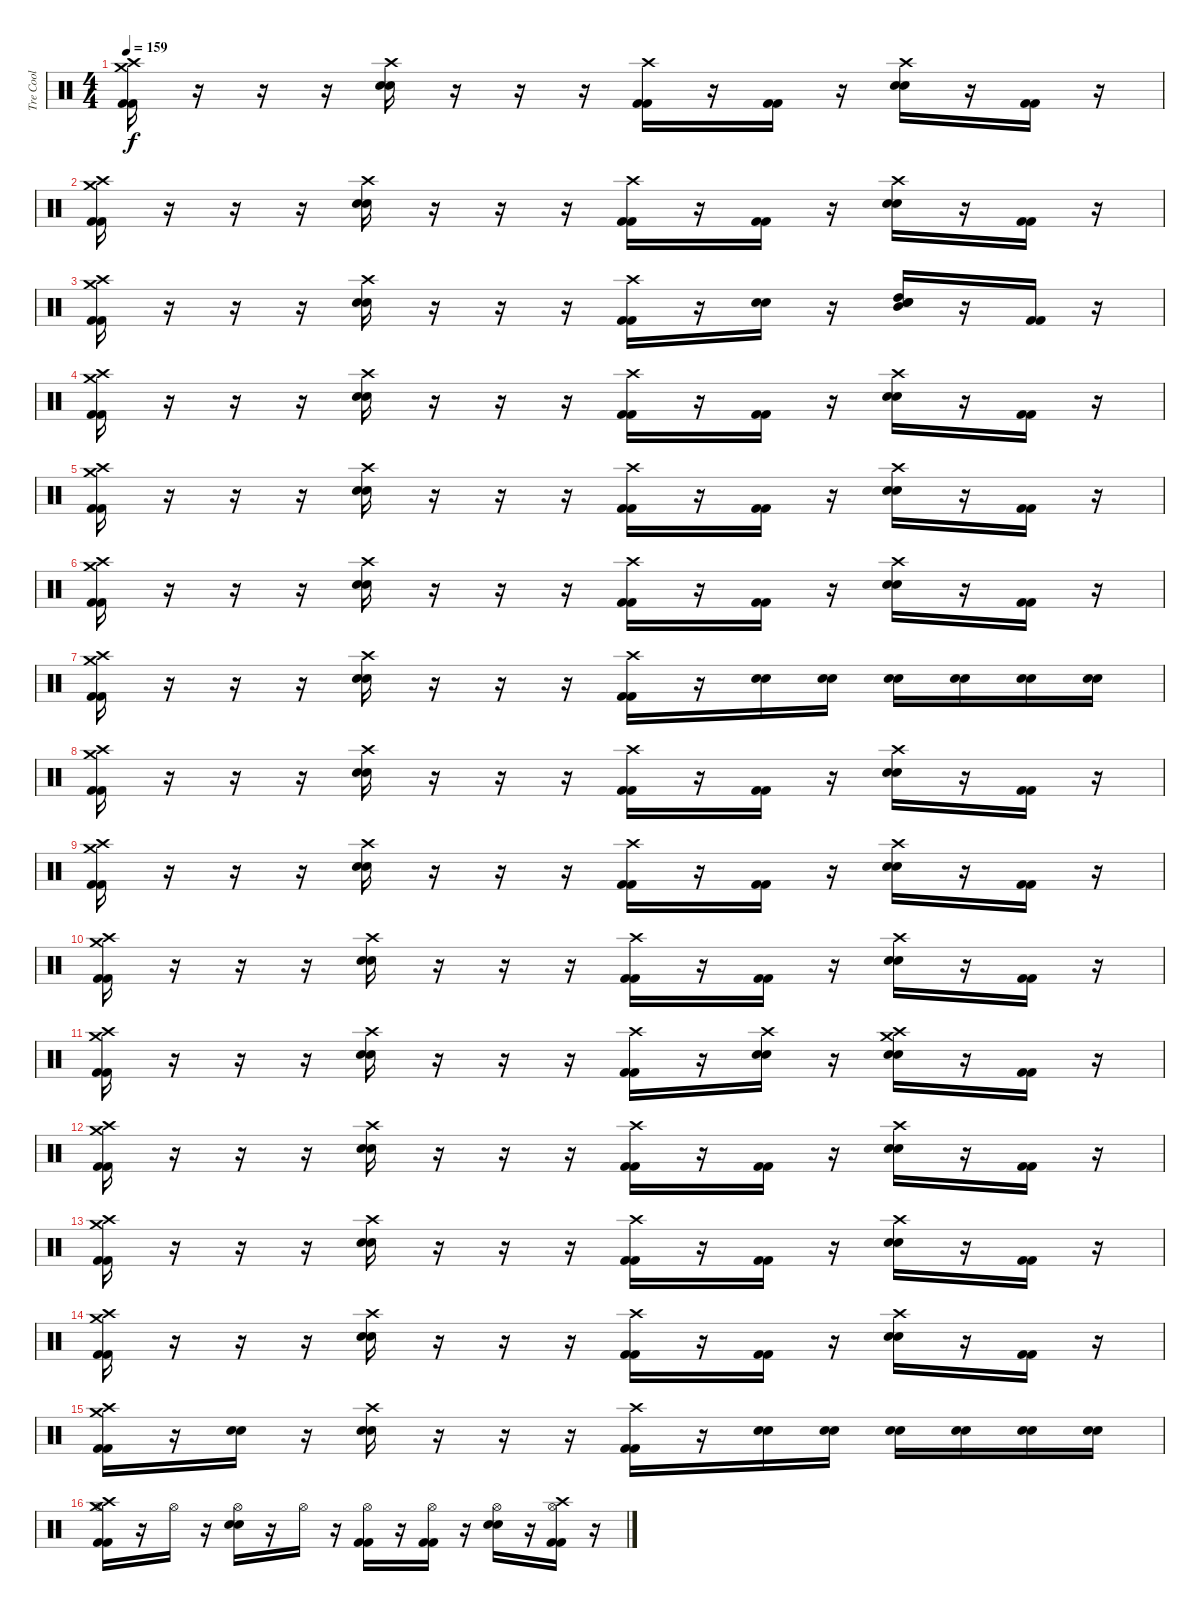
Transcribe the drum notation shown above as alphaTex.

\track ("Tre Cool" "Tre Cool") {instrument percussion}
\staff {score}
\articulation defaults
\ts (4 4)
\tempo 159
\clef neutral
\ks c
("Crash high (hit)" "Crash medium (hit)" "Kick (hit) 2" "Kick (hit) 2").16{dy f} r.16 r.16 r.16 ("Crash high (hit)" "Snare (hit) 2" "Snare (hit) 2").16 r.16 r.16 r.16 ("Crash high (hit)" "Kick (hit) 2" "Kick (hit) 2").16 r.16 ("Kick (hit) 2" "Kick (hit) 2").16 r.16 ("Crash high (hit)" "Snare (hit) 2" "Snare (hit) 2").16 r.16 ("Kick (hit) 2" "Kick (hit) 2").16 r.16 |
("Crash high (hit)" "Crash medium (hit)" "Kick (hit) 2" "Kick (hit) 2").16 r.16 r.16 r.16 ("Crash high (hit)" "Snare (hit) 2" "Snare (hit) 2").16 r.16 r.16 r.16 ("Crash high (hit)" "Kick (hit) 2" "Kick (hit) 2").16 r.16 ("Kick (hit) 2" "Kick (hit) 2").16 r.16 ("Crash high (hit)" "Snare (hit) 2" "Snare (hit) 2").16 r.16 ("Kick (hit) 2" "Kick (hit) 2").16 r.16 |
("Crash high (hit)" "Crash medium (hit)" "Kick (hit) 2" "Kick (hit) 2").16 r.16 r.16 r.16 ("Crash high (hit)" "Snare (hit) 2" "Snare (hit) 2").16 r.16 r.16 r.16 ("Crash high (hit)" "Kick (hit) 2" "Kick (hit) 2").16 r.16 ("Snare (hit) 2" "Snare (hit) 2").16 r.16 ("High Tom (hit)" "Mid Tom (hit)" "Snare (hit) 2" "Snare (hit) 2").16 r.16 ("Kick (hit) 2" "Kick (hit) 2").16 r.16 |
("Crash high (hit)" "Crash medium (hit)" "Kick (hit) 2" "Kick (hit) 2").16 r.16 r.16 r.16 ("Crash high (hit)" "Snare (hit) 2" "Snare (hit) 2").16 r.16 r.16 r.16 ("Crash high (hit)" "Kick (hit) 2" "Kick (hit) 2").16 r.16 ("Kick (hit) 2" "Kick (hit) 2").16 r.16 ("Crash high (hit)" "Snare (hit) 2" "Snare (hit) 2").16 r.16 ("Kick (hit) 2" "Kick (hit) 2").16 r.16 |
("Crash high (hit)" "Crash medium (hit)" "Kick (hit) 2" "Kick (hit) 2").16 r.16 r.16 r.16 ("Crash high (hit)" "Snare (hit) 2" "Snare (hit) 2").16 r.16 r.16 r.16 ("Crash high (hit)" "Kick (hit) 2" "Kick (hit) 2").16 r.16 ("Kick (hit) 2" "Kick (hit) 2").16 r.16 ("Crash high (hit)" "Snare (hit) 2" "Snare (hit) 2").16 r.16 ("Kick (hit) 2" "Kick (hit) 2").16 r.16 |
("Crash high (hit)" "Crash medium (hit)" "Kick (hit) 2" "Kick (hit) 2").16 r.16 r.16 r.16 ("Crash high (hit)" "Snare (hit) 2" "Snare (hit) 2").16 r.16 r.16 r.16 ("Crash high (hit)" "Kick (hit) 2" "Kick (hit) 2").16 r.16 ("Kick (hit) 2" "Kick (hit) 2").16 r.16 ("Crash high (hit)" "Snare (hit) 2" "Snare (hit) 2").16 r.16 ("Kick (hit) 2" "Kick (hit) 2").16 r.16 |
("Crash high (hit)" "Crash medium (hit)" "Kick (hit) 2" "Kick (hit) 2").16 r.16 r.16 r.16 ("Crash high (hit)" "Snare (hit) 2" "Snare (hit) 2").16 r.16 r.16 r.16 ("Crash high (hit)" "Kick (hit) 2" "Kick (hit) 2").16 r.16 ("Snare (hit) 2" "Snare (hit) 2").16 ("Snare (hit) 2" "Snare (hit) 2").16 ("Snare (hit) 2" "Snare (hit) 2").16 ("Snare (hit) 2" "Snare (hit) 2").16 ("Snare (hit) 2" "Snare (hit) 2").16 ("Snare (hit) 2" "Snare (hit) 2").16 |
("Crash high (hit)" "Crash medium (hit)" "Kick (hit) 2" "Kick (hit) 2").16 r.16 r.16 r.16 ("Crash high (hit)" "Snare (hit) 2" "Snare (hit) 2").16 r.16 r.16 r.16 ("Crash high (hit)" "Kick (hit) 2" "Kick (hit) 2").16 r.16 ("Kick (hit) 2" "Kick (hit) 2").16 r.16 ("Crash high (hit)" "Snare (hit) 2" "Snare (hit) 2").16 r.16 ("Kick (hit) 2" "Kick (hit) 2").16 r.16 |
("Crash high (hit)" "Crash medium (hit)" "Kick (hit) 2" "Kick (hit) 2").16 r.16 r.16 r.16 ("Crash high (hit)" "Snare (hit) 2" "Snare (hit) 2").16 r.16 r.16 r.16 ("Crash high (hit)" "Kick (hit) 2" "Kick (hit) 2").16 r.16 ("Kick (hit) 2" "Kick (hit) 2").16 r.16 ("Crash high (hit)" "Snare (hit) 2" "Snare (hit) 2").16 r.16 ("Kick (hit) 2" "Kick (hit) 2").16 r.16 |
("Crash high (hit)" "Crash medium (hit)" "Kick (hit) 2" "Kick (hit) 2").16 r.16 r.16 r.16 ("Crash high (hit)" "Snare (hit) 2" "Snare (hit) 2").16 r.16 r.16 r.16 ("Crash high (hit)" "Kick (hit) 2" "Kick (hit) 2").16 r.16 ("Kick (hit) 2" "Kick (hit) 2").16 r.16 ("Crash high (hit)" "Snare (hit) 2" "Snare (hit) 2").16 r.16 ("Kick (hit) 2" "Kick (hit) 2").16 r.16 |
("Crash high (hit)" "Crash medium (hit)" "Kick (hit) 2" "Kick (hit) 2").16 r.16 r.16 r.16 ("Crash high (hit)" "Snare (hit) 2" "Snare (hit) 2").16 r.16 r.16 r.16 ("Crash high (hit)" "Kick (hit) 2" "Kick (hit) 2").16 r.16 ("Crash high (hit)" "Snare (hit) 2" "Snare (hit) 2").16 r.16 ("Crash high (hit)" "Crash medium (hit)" "Snare (hit) 2" "Snare (hit) 2").16 r.16 ("Kick (hit) 2" "Kick (hit) 2").16 r.16 |
("Crash high (hit)" "Crash medium (hit)" "Kick (hit) 2" "Kick (hit) 2").16 r.16 r.16 r.16 ("Crash high (hit)" "Snare (hit) 2" "Snare (hit) 2").16 r.16 r.16 r.16 ("Crash high (hit)" "Kick (hit) 2" "Kick (hit) 2").16 r.16 ("Kick (hit) 2" "Kick (hit) 2").16 r.16 ("Crash high (hit)" "Snare (hit) 2" "Snare (hit) 2").16 r.16 ("Kick (hit) 2" "Kick (hit) 2").16 r.16 |
("Crash high (hit)" "Crash medium (hit)" "Kick (hit) 2" "Kick (hit) 2").16 r.16 r.16 r.16 ("Crash high (hit)" "Snare (hit) 2" "Snare (hit) 2").16 r.16 r.16 r.16 ("Crash high (hit)" "Kick (hit) 2" "Kick (hit) 2").16 r.16 ("Kick (hit) 2" "Kick (hit) 2").16 r.16 ("Crash high (hit)" "Snare (hit) 2" "Snare (hit) 2").16 r.16 ("Kick (hit) 2" "Kick (hit) 2").16 r.16 |
("Crash high (hit)" "Crash medium (hit)" "Kick (hit) 2" "Kick (hit) 2").16 r.16 r.16 r.16 ("Crash high (hit)" "Snare (hit) 2" "Snare (hit) 2").16 r.16 r.16 r.16 ("Crash high (hit)" "Kick (hit) 2" "Kick (hit) 2").16 r.16 ("Kick (hit) 2" "Kick (hit) 2").16 r.16 ("Crash high (hit)" "Snare (hit) 2" "Snare (hit) 2").16 r.16 ("Kick (hit) 2" "Kick (hit) 2").16 r.16 |
("Crash high (hit)" "Crash medium (hit)" "Kick (hit) 2" "Kick (hit) 2").16 r.16 ("Snare (hit) 2" "Snare (hit) 2").16 r.16 ("Crash high (hit)" "Snare (hit) 2" "Snare (hit) 2").16 r.16 r.16 r.16 ("Crash high (hit)" "Kick (hit) 2" "Kick (hit) 2").16 r.16 ("Snare (hit) 2" "Snare (hit) 2").16 ("Snare (hit) 2" "Snare (hit) 2").16 ("Snare (hit) 2" "Snare (hit) 2").16 ("Snare (hit) 2" "Snare (hit) 2").16 ("Snare (hit) 2" "Snare (hit) 2").16 ("Snare (hit) 2" "Snare (hit) 2").16 |
("Hi-Hat (open)" "Crash high (hit)" "Crash medium (hit)" "Kick (hit) 2" "Kick (hit) 2").16 r.16 "Hi-Hat (open)".16 r.16 ("Hi-Hat (open)" "Snare (hit) 2" "Snare (hit) 2").16 r.16 "Hi-Hat (open)".16 r.16 ("Hi-Hat (open)" "Kick (hit) 2" "Kick (hit) 2").16 r.16 ("Hi-Hat (open)" "Kick (hit) 2" "Kick (hit) 2").16 r.16 ("Hi-Hat (open)" "Snare (hit) 2" "Snare (hit) 2").16 r.16 ("Hi-Hat (open)" "Crash high (hit)" "Kick (hit) 2" "Kick (hit) 2").16 r.16
